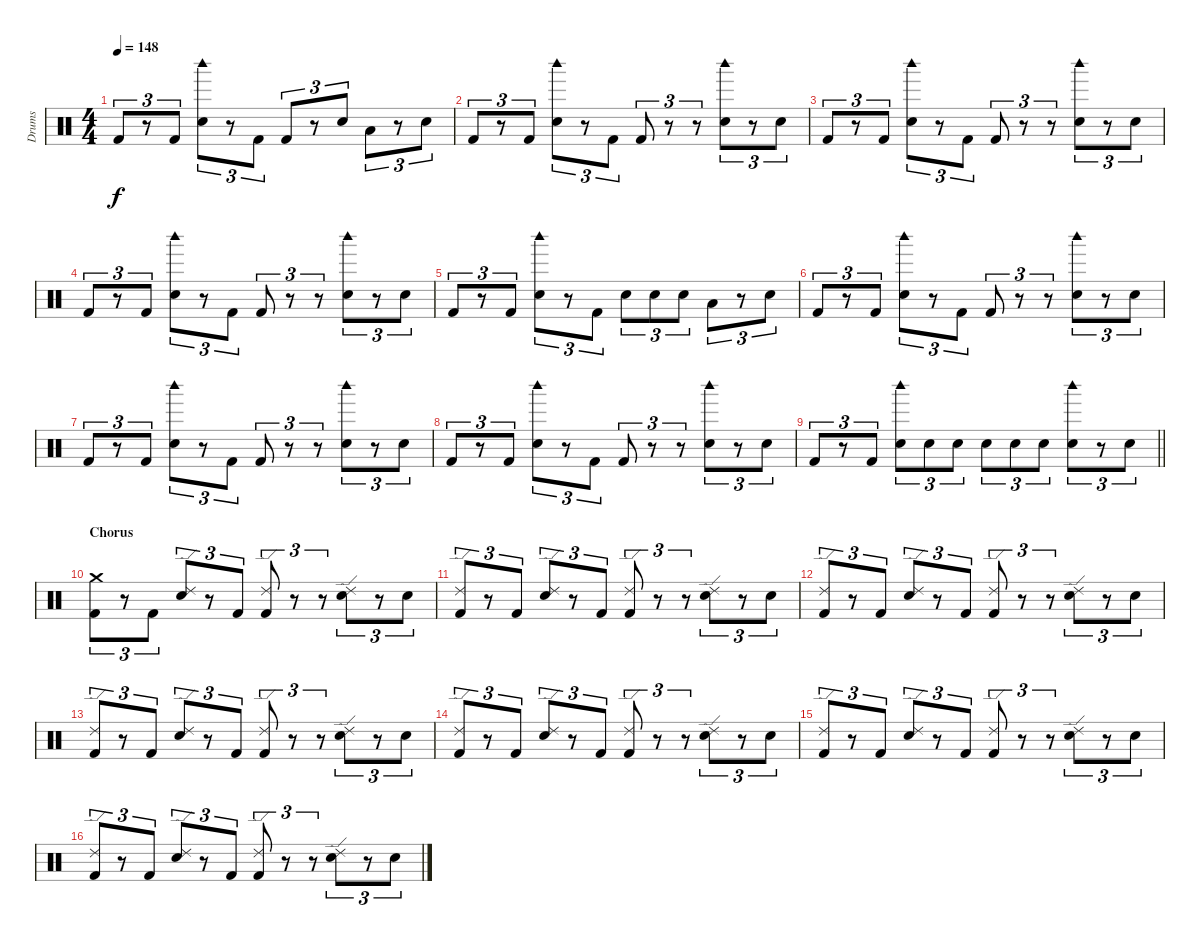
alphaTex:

\track ("Drums" "Drums") {instrument percussion}
\staff {score}
\articulation defaults
\ts (4 4)
\tempo 148
\clef neutral
\ks c "Kick (hit) 2".8{tu (3 2) dy f}
r.8{tu (3 2)} "Kick (hit) 2".8{tu (3 2)} ("Woodblock high (hit)" "Snare (hit) 2").8{tu (3 2)} r.8{tu (3 2)} "Kick (hit) 2".8{tu (3 2)} "Kick (hit) 2".8{tu (3 2)} r.8{tu (3 2)} "Snare (hit) 2".8{tu (3 2)} "Low Tom (hit)".8{tu (3 2)} r.8{tu (3 2)} "Snare (hit) 2".8{tu (3 2)} |
"Kick (hit) 2".8{tu (3 2)} r.8{tu (3 2)} "Kick (hit) 2".8{tu (3 2)} ("Woodblock high (hit)" "Snare (hit) 2").8{tu (3 2)} r.8{tu (3 2)} "Kick (hit) 2".8{tu (3 2)} "Kick (hit) 2".8{tu (3 2)} r.8{tu (3 2)} r.8{tu (3 2)} ("Woodblock high (hit)" "Snare (hit) 2").8{tu (3 2)} r.8{tu (3 2)} "Snare (hit) 2".8{tu (3 2)} |
"Kick (hit) 2".8{tu (3 2)} r.8{tu (3 2)} "Kick (hit) 2".8{tu (3 2)} ("Woodblock high (hit)" "Snare (hit) 2").8{tu (3 2)} r.8{tu (3 2)} "Kick (hit) 2".8{tu (3 2)} "Kick (hit) 2".8{tu (3 2)} r.8{tu (3 2)} r.8{tu (3 2)} ("Woodblock high (hit)" "Snare (hit) 2").8{tu (3 2)} r.8{tu (3 2)} "Snare (hit) 2".8{tu (3 2)} |
"Kick (hit) 2".8{tu (3 2)} r.8{tu (3 2)} "Kick (hit) 2".8{tu (3 2)} ("Woodblock high (hit)" "Snare (hit) 2").8{tu (3 2)} r.8{tu (3 2)} "Kick (hit) 2".8{tu (3 2)} "Kick (hit) 2".8{tu (3 2)} r.8{tu (3 2)} r.8{tu (3 2)} ("Woodblock high (hit)" "Snare (hit) 2").8{tu (3 2)} r.8{tu (3 2)} "Snare (hit) 2".8{tu (3 2)} |
"Kick (hit) 2".8{tu (3 2)} r.8{tu (3 2)} "Kick (hit) 2".8{tu (3 2)} ("Woodblock high (hit)" "Snare (hit) 2").8{tu (3 2)} r.8{tu (3 2)} "Kick (hit) 2".8{tu (3 2)} "Snare (hit) 2".8{tu (3 2)} "Snare (hit) 2".8{tu (3 2)} "Snare (hit) 2".8{tu (3 2)} "Low Tom (hit)".8{tu (3 2)} r.8{tu (3 2)} "Snare (hit) 2".8{tu (3 2)} |
"Kick (hit) 2".8{tu (3 2)} r.8{tu (3 2)} "Kick (hit) 2".8{tu (3 2)} ("Woodblock high (hit)" "Snare (hit) 2").8{tu (3 2)} r.8{tu (3 2)} "Kick (hit) 2".8{tu (3 2)} "Kick (hit) 2".8{tu (3 2)} r.8{tu (3 2)} r.8{tu (3 2)} ("Woodblock high (hit)" "Snare (hit) 2").8{tu (3 2)} r.8{tu (3 2)} "Snare (hit) 2".8{tu (3 2)} |
"Kick (hit) 2".8{tu (3 2)} r.8{tu (3 2)} "Kick (hit) 2".8{tu (3 2)} ("Woodblock high (hit)" "Snare (hit) 2").8{tu (3 2)} r.8{tu (3 2)} "Kick (hit) 2".8{tu (3 2)} "Kick (hit) 2".8{tu (3 2)} r.8{tu (3 2)} r.8{tu (3 2)} ("Woodblock high (hit)" "Snare (hit) 2").8{tu (3 2)} r.8{tu (3 2)} "Snare (hit) 2".8{tu (3 2)} |
"Kick (hit) 2".8{tu (3 2)} r.8{tu (3 2)} "Kick (hit) 2".8{tu (3 2)} ("Woodblock high (hit)" "Snare (hit) 2").8{tu (3 2)} r.8{tu (3 2)} "Kick (hit) 2".8{tu (3 2)} "Kick (hit) 2".8{tu (3 2)} r.8{tu (3 2)} r.8{tu (3 2)} ("Woodblock high (hit)" "Snare (hit) 2").8{tu (3 2)} r.8{tu (3 2)} "Snare (hit) 2".8{tu (3 2)} |
\barLineRight lightlight "Kick (hit) 2".8{tu (3 2)}
r.8{tu (3 2)} "Kick (hit) 2".8{tu (3 2)} ("Woodblock high (hit)" "Snare (hit) 2").8{tu (3 2)} "Snare (hit) 2".8{tu (3 2)} "Snare (hit) 2".8{tu (3 2)} "Snare (hit) 2".8{tu (3 2)} "Snare (hit) 2".8{tu (3 2)} "Snare (hit) 2".8{tu (3 2)} ("Woodblock high (hit)" "Snare (hit) 2").8{tu (3 2)} r.8{tu (3 2)} "Snare (hit) 2".8{tu (3 2)} |
\section ("" "Chorus")
("Crash medium (hit)" "Kick (hit) 2").8{tu (3 2)} r.8{tu (3 2)} "Kick (hit) 2".8{tu (3 2)} ("Ride (edge) 2" "Snare (hit) 2").8{tu (3 2)} r.8{tu (3 2)} "Kick (hit) 2".8{tu (3 2)} ("Ride (edge) 2" "Kick (hit) 2").8{tu (3 2)} r.8{tu (3 2)} r.8{tu (3 2)} ("Ride (edge) 2" "Snare (hit) 2").8{tu (3 2)} r.8{tu (3 2)} "Snare (hit) 2".8{tu (3 2)} |
("Ride (edge) 2" "Kick (hit) 2").8{tu (3 2)} r.8{tu (3 2)} "Kick (hit) 2".8{tu (3 2)} ("Ride (edge) 2" "Snare (hit) 2").8{tu (3 2)} r.8{tu (3 2)} "Kick (hit) 2".8{tu (3 2)} ("Ride (edge) 2" "Kick (hit) 2").8{tu (3 2)} r.8{tu (3 2)} r.8{tu (3 2)} ("Ride (edge) 2" "Snare (hit) 2").8{tu (3 2)} r.8{tu (3 2)} "Snare (hit) 2".8{tu (3 2)} |
("Ride (edge) 2" "Kick (hit) 2").8{tu (3 2)} r.8{tu (3 2)} "Kick (hit) 2".8{tu (3 2)} ("Ride (edge) 2" "Snare (hit) 2").8{tu (3 2)} r.8{tu (3 2)} "Kick (hit) 2".8{tu (3 2)} ("Ride (edge) 2" "Kick (hit) 2").8{tu (3 2)} r.8{tu (3 2)} r.8{tu (3 2)} ("Ride (edge) 2" "Snare (hit) 2").8{tu (3 2)} r.8{tu (3 2)} "Snare (hit) 2".8{tu (3 2)} |
("Ride (edge) 2" "Kick (hit) 2").8{tu (3 2)} r.8{tu (3 2)} "Kick (hit) 2".8{tu (3 2)} ("Ride (edge) 2" "Snare (hit) 2").8{tu (3 2)} r.8{tu (3 2)} "Kick (hit) 2".8{tu (3 2)} ("Ride (edge) 2" "Kick (hit) 2").8{tu (3 2)} r.8{tu (3 2)} r.8{tu (3 2)} ("Ride (edge) 2" "Snare (hit) 2").8{tu (3 2)} r.8{tu (3 2)} "Snare (hit) 2".8{tu (3 2)} |
("Ride (edge) 2" "Kick (hit) 2").8{tu (3 2)} r.8{tu (3 2)} "Kick (hit) 2".8{tu (3 2)} ("Ride (edge) 2" "Snare (hit) 2").8{tu (3 2)} r.8{tu (3 2)} "Kick (hit) 2".8{tu (3 2)} ("Ride (edge) 2" "Kick (hit) 2").8{tu (3 2)} r.8{tu (3 2)} r.8{tu (3 2)} ("Ride (edge) 2" "Snare (hit) 2").8{tu (3 2)} r.8{tu (3 2)} "Snare (hit) 2".8{tu (3 2)} |
("Ride (edge) 2" "Kick (hit) 2").8{tu (3 2)} r.8{tu (3 2)} "Kick (hit) 2".8{tu (3 2)} ("Ride (edge) 2" "Snare (hit) 2").8{tu (3 2)} r.8{tu (3 2)} "Kick (hit) 2".8{tu (3 2)} ("Ride (edge) 2" "Kick (hit) 2").8{tu (3 2)} r.8{tu (3 2)} r.8{tu (3 2)} ("Ride (edge) 2" "Snare (hit) 2").8{tu (3 2)} r.8{tu (3 2)} "Snare (hit) 2".8{tu (3 2)} |
("Ride (edge) 2" "Kick (hit) 2").8{tu (3 2)} r.8{tu (3 2)} "Kick (hit) 2".8{tu (3 2)} ("Ride (edge) 2" "Snare (hit) 2").8{tu (3 2)} r.8{tu (3 2)} "Kick (hit) 2".8{tu (3 2)} ("Ride (edge) 2" "Kick (hit) 2").8{tu (3 2)} r.8{tu (3 2)} r.8{tu (3 2)} ("Ride (edge) 2" "Snare (hit) 2").8{tu (3 2)} r.8{tu (3 2)} "Snare (hit) 2".8{tu (3 2)}
